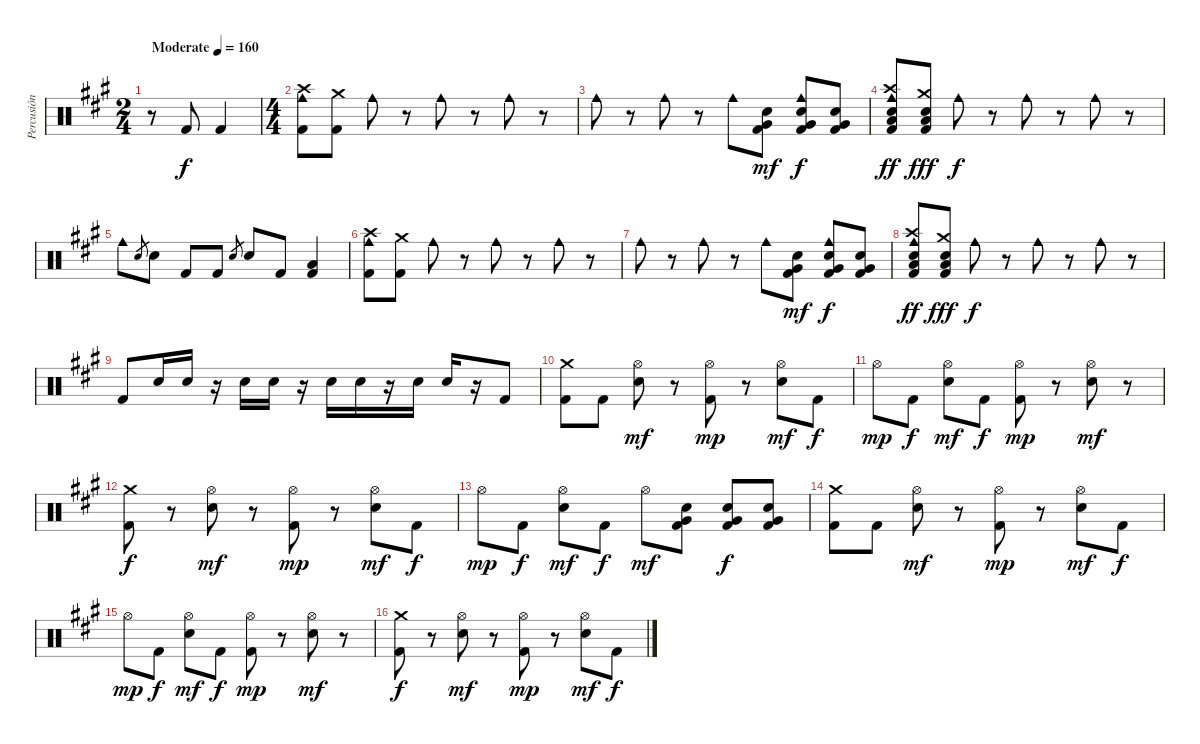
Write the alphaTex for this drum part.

\track ("Percusión" "Percusión") {instrument percussion}
\staff {score}
\articulation defaults
\ts (2 4)
\tempo (160 "Moderate")
\clef neutral
\ks a
r.8{dy f} "Kick (hit) 2".8 "Kick (hit) 2".4 |
\ts (4 4)
("Crash high (hit)" "Cowbell medium (hit)" "Kick (hit) 2").8 ("Crash medium (hit)" "Kick (hit) 2").8 "Cowbell medium (hit)".8 r.8 "Cowbell medium (hit)".8 r.8 "Cowbell medium (hit)".8 r.8 |
"Cowbell medium (hit)".8 r.8 "Cowbell medium (hit)".8 r.8 "Cowbell medium (hit)".8 ("Very Low Tom (hit)" "Electric Snare (hit)" "Kick (hit) 2").8{dy mf} ("Very Low Tom (hit)" "Cowbell medium (hit)" "Electric Snare (hit)" "Kick (hit) 2").8{dy f} ("Very Low Tom (hit)" "Electric Snare (hit)" "Kick (hit) 2").8 |
("Crash high (hit)" "Low Floor Tom (hit)" "Cowbell medium (hit)" "Electric Snare (hit)" "Kick (hit) 2").8{dy ff} ("Crash medium (hit)" "Low Floor Tom (hit)" "Electric Snare (hit)" "Kick (hit) 2").8{dy fff} "Cowbell medium (hit)".8{dy f} r.8 "Cowbell medium (hit)".8 r.8 "Cowbell medium (hit)".8 r.8 |
"Cowbell medium (hit)".8 "Electric Snare (hit)".8{gr} "Electric Snare (hit)".8 "Kick (hit) 2".8 "Kick (hit) 2".8 "Electric Snare (hit)".8{gr} "Electric Snare (hit)".8 "Kick (hit) 2".8 ("Low Floor Tom (hit)" "Kick (hit) 2").4 |
("Crash high (hit)" "Cowbell medium (hit)" "Kick (hit) 2").8 ("Crash medium (hit)" "Kick (hit) 2").8 "Cowbell medium (hit)".8 r.8 "Cowbell medium (hit)".8 r.8 "Cowbell medium (hit)".8 r.8 |
"Cowbell medium (hit)".8 r.8 "Cowbell medium (hit)".8 r.8 "Cowbell medium (hit)".8 ("Very Low Tom (hit)" "Electric Snare (hit)" "Kick (hit) 2").8{dy mf} ("Very Low Tom (hit)" "Cowbell medium (hit)" "Electric Snare (hit)" "Kick (hit) 2").8{dy f} ("Very Low Tom (hit)" "Electric Snare (hit)" "Kick (hit) 2").8 |
("Crash high (hit)" "Low Floor Tom (hit)" "Cowbell medium (hit)" "Electric Snare (hit)" "Kick (hit) 2").8{dy ff} ("Crash medium (hit)" "Low Floor Tom (hit)" "Electric Snare (hit)" "Kick (hit) 2").8{dy fff} "Cowbell medium (hit)".8{dy f} r.8 "Cowbell medium (hit)".8 r.8 "Cowbell medium (hit)".8 r.8 |
"Kick (hit) 2".8 "Electric Snare (hit)".16 "Electric Snare (hit)".16 r.16 "Electric Snare (hit)".16 "Electric Snare (hit)".16 r.16 "Electric Snare (hit)".16 "Electric Snare (hit)".16 r.16 "Electric Snare (hit)".16 "Electric Snare (hit)".16 r.16 "Kick (hit) 2".8 |
("Crash medium (hit)" "Kick (hit) 2").8 "Kick (hit) 2".8 ("Hi-Hat (open)" "Electric Snare (hit)").8{dy mf} r.8 ("Hi-Hat (open)" "Kick (hit) 2").8{dy mp} r.8 ("Hi-Hat (open)" "Electric Snare (hit)").8{dy mf} "Kick (hit) 2".8{dy f} |
"Hi-Hat (open)".8{dy mp} "Kick (hit) 2".8{dy f} ("Hi-Hat (open)" "Electric Snare (hit)").8{dy mf} "Kick (hit) 2".8{dy f} ("Hi-Hat (open)" "Kick (hit) 2").8{dy mp} r.8 ("Hi-Hat (open)" "Electric Snare (hit)").8{dy mf} r.8 |
("Crash medium (hit)" "Kick (hit) 2").8{dy f} r.8 ("Hi-Hat (open)" "Electric Snare (hit)").8{dy mf} r.8 ("Hi-Hat (open)" "Kick (hit) 2").8{dy mp} r.8 ("Hi-Hat (open)" "Electric Snare (hit)").8{dy mf} "Kick (hit) 2".8{dy f} |
"Hi-Hat (open)".8{dy mp} "Kick (hit) 2".8{dy f} ("Hi-Hat (open)" "Electric Snare (hit)").8{dy mf} "Kick (hit) 2".8{dy f} "Hi-Hat (open)".8{dy mf} ("Very Low Tom (hit)" "Electric Snare (hit)" "Kick (hit) 2").8 ("Very Low Tom (hit)" "Electric Snare (hit)" "Kick (hit) 2").8{dy f} ("Very Low Tom (hit)" "Electric Snare (hit)" "Kick (hit) 2").8 |
("Crash medium (hit)" "Kick (hit) 2").8 "Kick (hit) 2".8 ("Hi-Hat (open)" "Electric Snare (hit)").8{dy mf} r.8 ("Hi-Hat (open)" "Kick (hit) 2").8{dy mp} r.8 ("Hi-Hat (open)" "Electric Snare (hit)").8{dy mf} "Kick (hit) 2".8{dy f} |
"Hi-Hat (open)".8{dy mp} "Kick (hit) 2".8{dy f} ("Hi-Hat (open)" "Electric Snare (hit)").8{dy mf} "Kick (hit) 2".8{dy f} ("Hi-Hat (open)" "Kick (hit) 2").8{dy mp} r.8 ("Hi-Hat (open)" "Electric Snare (hit)").8{dy mf} r.8 |
("Crash medium (hit)" "Kick (hit) 2").8{dy f} r.8 ("Hi-Hat (open)" "Electric Snare (hit)").8{dy mf} r.8 ("Hi-Hat (open)" "Kick (hit) 2").8{dy mp} r.8 ("Hi-Hat (open)" "Electric Snare (hit)").8{dy mf} "Kick (hit) 2".8{dy f}
